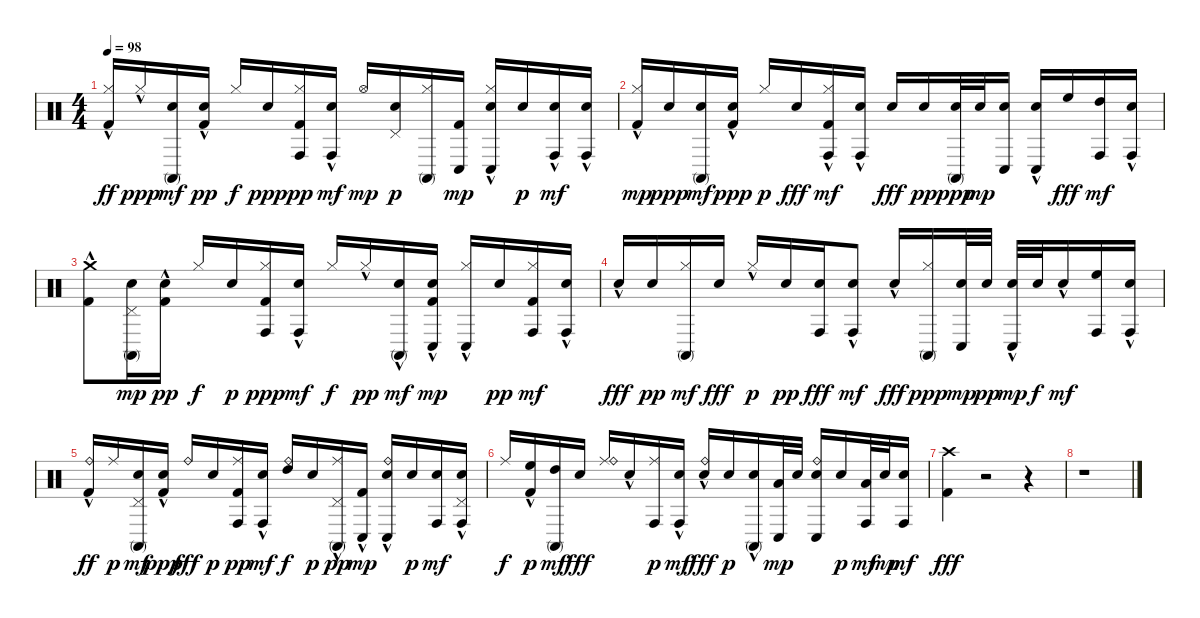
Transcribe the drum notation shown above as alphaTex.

\track "" {instrument percussion}
\staff {score}
\articulation defaults
\ts (4 4)
\tempo 98
\clef neutral
\ks c
("Kick (hit) 2"{hac} "Hi-Hat (closed)").16{dy ff} "Hi-Hat (closed)"{hac}.16{dy ppp} ("Electric Snare (hit)" "Conga high (mute)").16{dy mf} ("Kick (hit) 2"{hac} "Snare (hit) 2").16{dy pp} "Hi-Hat (closed)".16{dy f} "Snare (hit) 2".16{dy ppp} ("Kick (hit) 2" "Hi-Hat (closed)" "Conga high (hit)").16{dy pp} ("Electric Snare (hit)" "Conga high (hit)"{hac}).16{dy mf} "Hi-Hat (open)".16{dy mp} ("Snare (hit) 2" "Pedal Hi-Hat (hit)").16{dy p} ("Hi-Hat (closed)" "Conga high (mute)").16 ("Kick (hit) 2" "Conga low (hit)").16{dy mp} ("Electric Snare (hit)"{hac} "Hi-Hat (closed)" "Conga low (hit)"{hac}).16 "Snare (hit) 2".16{dy p} ("Snare (hit) 2"{hac} "Conga high (hit)").16{dy mf} ("Electric Snare (hit)"{hac} "Conga high (hit)"{hac}).16 |
("Kick (hit) 2"{hac} "Hi-Hat (closed)").16{dy mp} "Snare (hit) 2".16{dy ppp} ("Snare (hit) 2" "Conga high (mute)").16{dy mf} ("Kick (hit) 2"{hac} "Snare (hit) 2").16{dy ppp} "Hi-Hat (closed)".16{dy p} "Electric Snare (hit)".16{dy fff} ("Conga high (hit)" "Kick (hit) 2" "Hi-Hat (closed)"{hac}).16{dy mf} ("Snare (hit) 2" "Conga high (hit)"{hac}).16 "Snare (hit) 2".16{dy fff} "Snare (hit) 2".16{dy pp} ("Snare (hit) 2" "Conga high (mute)").32{dy ppp} "Electric Snare (hit)".32{dy mp} ("Electric Snare (hit)" "Conga low (hit)").16 ("Snare (hit) 2"{hac} "Conga low (hit)"{hac}).16 "High Floor Tom (hit)".16{dy fff} ("High Tom (hit)" "Conga high (hit)").16{dy mf} ("Electric Snare (hit)"{hac} "Conga high (hit)"{hac}).16 |
("Kick (hit) 2"{hac} "Crash medium (hit)").8 ("Conga high (mute)" "Electric Snare (hit)" "Pedal Hi-Hat (hit)").16{dy mp} ("Kick (hit) 2"{hac} "Snare (hit) 2").16{dy pp} "Hi-Hat (closed)".16{dy f} "Snare (hit) 2".16{dy p} ("Conga high (hit)" "Kick (hit) 2" "Hi-Hat (closed)").16{dy ppp} ("Snare (hit) 2" "Conga high (hit)"{hac}).16{dy mf} "Hi-Hat (closed)".16{dy f} "Hi-Hat (closed)"{hac}.16{dy pp} ("Electric Snare (hit)"{hac} "Conga high (mute)").16{dy mf} ("Kick (hit) 2"{hac} "Snare (hit) 2" "Conga low (hit)").16{dy mp} ("Hi-Hat (closed)" "Conga low (hit)"{hac}).16 "Snare (hit) 2".16{dy pp} ("Kick (hit) 2" "Hi-Hat (closed)" "Conga high (hit)").16{dy mf} ("Snare (hit) 2" "Conga high (hit)"{hac}).16 |
"Electric Snare (hit)"{hac}.16{dy fff} "Snare (hit) 2".16{dy pp} ("Hi-Hat (closed)" "Conga high (mute)").16{dy mf} "Electric Snare (hit)".16{dy fff} "Hi-Hat (closed)"{hac}.16{dy p} "Snare (hit) 2".16{dy pp} ("Snare (hit) 2" "Conga high (hit)").16{dy fff} ("Electric Snare (hit)" "Conga high (hit)"{hac}).8{dy mf} "Electric Snare (hit)"{hac}.16{dy fff} ("Hi-Hat (closed)" "Conga high (mute)").16{dy ppp} ("Snare (hit) 2" "Conga low (hit)").32{dy mp} "Snare (hit) 2".32{dy pp} ("Snare (hit) 2" "Conga low (hit)"{hac}).32{dy mp} "Snare (hit) 2".32{dy f} "Snare (hit) 2"{hac}.16{dy mf} ("High Floor Tom (hit)" "Conga high (hit)").16 ("Electric Snare (hit)"{hac} "Conga high (hit)"{hac}).16 |
("Kick (hit) 2"{hac} "Ride (bell)").16{dy ff} "Ride (middle)".16{dy p} ("Electric Snare (hit)" "Pedal Hi-Hat (hit)" "Conga high (mute)").16{dy mf} ("Kick (hit) 2"{hac} "Snare (hit) 2").16{dy ppp} "Ride (bell)".16{dy fff} "Snare (hit) 2".16{dy p} ("Conga high (hit)" "Kick (hit) 2" "Ride (middle)").16{dy pp} ("Electric Snare (hit)" "Conga high (hit)"{hac}).16{dy mf} ("High Tom (hit)" "Ride (bell)").16{dy f} "Snare (hit) 2".16{dy p} ("Pedal Hi-Hat (hit)" "Ride (middle)"{hac} "Conga high (mute)").16{dy pp} ("Kick (hit) 2"{hac} "Conga low (hit)").16{dy mp} ("Electric Snare (hit)"{hac} "Conga low (hit)"{hac} "Ride (bell)").16 "Snare (hit) 2".16{dy p} ("Snare (hit) 2" "Conga high (hit)").16{dy mf} ("Electric Snare (hit)" "Pedal Hi-Hat (hit)" "Conga high (hit)"{hac}).16 |
"Ride (middle)".16{dy f} ("Kick (hit) 2"{hac} "High Floor Tom (hit)").16{dy p} ("High Tom (hit)" "Conga high (mute)").16{dy mf} "Electric Snare (hit)".16{dy fff} ("Ride (middle)" "Ride (bell)").16 "Electric Snare (hit)"{hac}.16 ("Ride (middle)" "Conga high (hit)").16{dy p} ("Snare (hit) 2" "Conga high (hit)"{hac}).16{dy mf} ("Electric Snare (hit)"{hac} "Ride (bell)").16{dy fff} "Snare (hit) 2".16{dy p} ("Snare (hit) 2"{hac} "Conga high (mute)").16 ("Low Tom (hit)" "Conga low (hit)").32{dy mp} "Electric Snare (hit)".32 ("Electric Snare (hit)" "Conga low (hit)" "Ride (bell)").16 "Snare (hit) 2".16{dy p} ("Low Floor Tom (hit)" "Conga high (hit)").32{dy mf} "Electric Snare (hit)".32{dy mp} ("Electric Snare (hit)" "Conga high (hit)").16{dy mf} |
("Kick (hit) 2" "Crash high (hit)").4{dy fff} r.2 r.4 |
r.1
